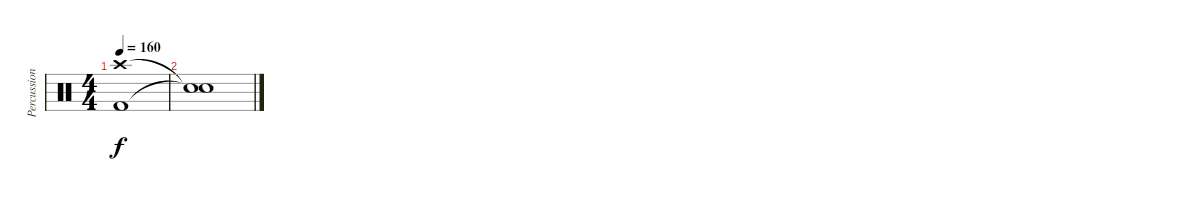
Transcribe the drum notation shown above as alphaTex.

\track ("Percussion" "Percussion") {instrument percussion}
\staff {score}
\articulation defaults
\ts (4 4)
\tempo 160
\clef neutral
\ks c
("Crash high (hit)" "Kick (hit) 2").1{dy f} |
("Snare (hit)"{t} "Snare (hit)"{t}).1
